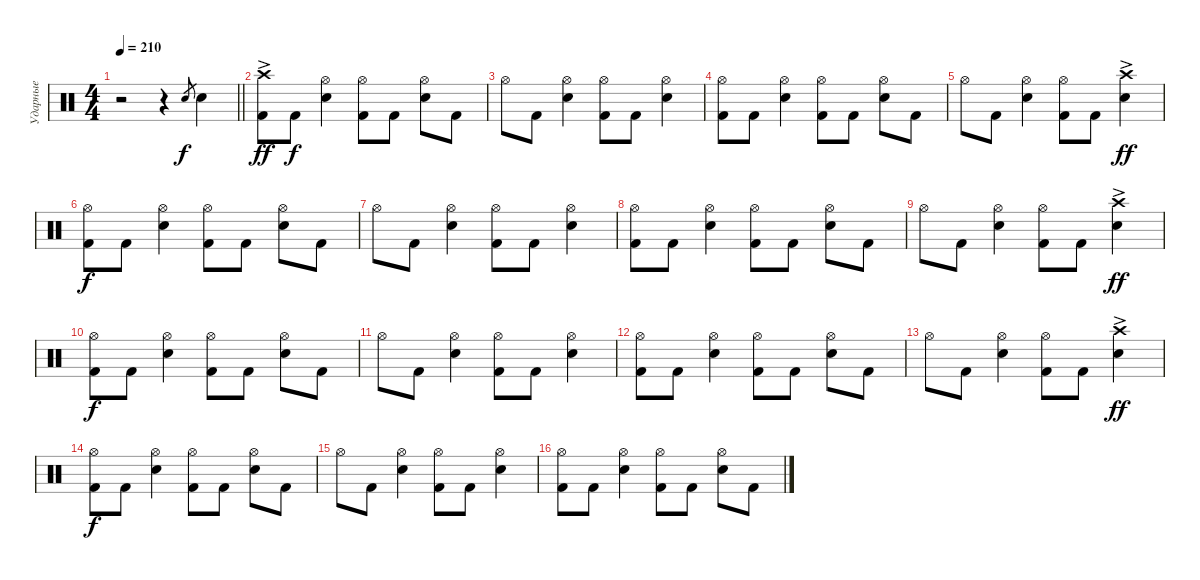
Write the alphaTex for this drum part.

\track ("Ударные" "Ударные") {instrument percussion}
\staff {score}
\articulation defaults
\ts (4 4)
\tempo 210
\clef neutral
\barLineRight lightlight
\ks c
r.2{dy f} r.4 "Snare (hit) 2".8{gr} "Snare (hit) 2".4 |
\section ("" "")
("Crash high (hit)"{ac} "Kick (hit) 2").8{dy ff} "Kick (hit) 2".8{dy f} ("Hi-Hat (open)" "Snare (hit) 2").4 ("Hi-Hat (open)" "Kick (hit) 2").8 "Kick (hit) 2".8 ("Hi-Hat (open)" "Snare (hit) 2").8 "Kick (hit) 2".8 |
"Hi-Hat (open)".8 "Kick (hit) 2".8 ("Hi-Hat (open)" "Snare (hit) 2").4 ("Hi-Hat (open)" "Kick (hit) 2").8 "Kick (hit) 2".8 ("Hi-Hat (open)" "Snare (hit) 2").4 |
("Hi-Hat (open)" "Kick (hit) 2").8 "Kick (hit) 2".8 ("Hi-Hat (open)" "Snare (hit) 2").4 ("Hi-Hat (open)" "Kick (hit) 2").8 "Kick (hit) 2".8 ("Hi-Hat (open)" "Snare (hit) 2").8 "Kick (hit) 2".8 |
"Hi-Hat (open)".8 "Kick (hit) 2".8 ("Hi-Hat (open)" "Snare (hit) 2").4 ("Hi-Hat (open)" "Kick (hit) 2").8 "Kick (hit) 2".8 ("Crash high (hit)"{ac} "Snare (hit) 2").4{dy ff} |
("Hi-Hat (open)" "Kick (hit) 2").8{dy f} "Kick (hit) 2".8 ("Hi-Hat (open)" "Snare (hit) 2").4 ("Hi-Hat (open)" "Kick (hit) 2").8 "Kick (hit) 2".8 ("Hi-Hat (open)" "Snare (hit) 2").8 "Kick (hit) 2".8 |
"Hi-Hat (open)".8 "Kick (hit) 2".8 ("Hi-Hat (open)" "Snare (hit) 2").4 ("Hi-Hat (open)" "Kick (hit) 2").8 "Kick (hit) 2".8 ("Hi-Hat (open)" "Snare (hit) 2").4 |
("Hi-Hat (open)" "Kick (hit) 2").8 "Kick (hit) 2".8 ("Hi-Hat (open)" "Snare (hit) 2").4 ("Hi-Hat (open)" "Kick (hit) 2").8 "Kick (hit) 2".8 ("Hi-Hat (open)" "Snare (hit) 2").8 "Kick (hit) 2".8 |
"Hi-Hat (open)".8 "Kick (hit) 2".8 ("Hi-Hat (open)" "Snare (hit) 2").4 ("Hi-Hat (open)" "Kick (hit) 2").8 "Kick (hit) 2".8 ("Crash high (hit)"{ac} "Snare (hit) 2").4{dy ff} |
("Hi-Hat (open)" "Kick (hit) 2").8{dy f} "Kick (hit) 2".8 ("Hi-Hat (open)" "Snare (hit) 2").4 ("Hi-Hat (open)" "Kick (hit) 2").8 "Kick (hit) 2".8 ("Hi-Hat (open)" "Snare (hit) 2").8 "Kick (hit) 2".8 |
"Hi-Hat (open)".8 "Kick (hit) 2".8 ("Hi-Hat (open)" "Snare (hit) 2").4 ("Hi-Hat (open)" "Kick (hit) 2").8 "Kick (hit) 2".8 ("Hi-Hat (open)" "Snare (hit) 2").4 |
("Hi-Hat (open)" "Kick (hit) 2").8 "Kick (hit) 2".8 ("Hi-Hat (open)" "Snare (hit) 2").4 ("Hi-Hat (open)" "Kick (hit) 2").8 "Kick (hit) 2".8 ("Hi-Hat (open)" "Snare (hit) 2").8 "Kick (hit) 2".8 |
"Hi-Hat (open)".8 "Kick (hit) 2".8 ("Hi-Hat (open)" "Snare (hit) 2").4 ("Hi-Hat (open)" "Kick (hit) 2").8 "Kick (hit) 2".8 ("Crash high (hit)"{ac} "Snare (hit) 2").4{dy ff} |
("Hi-Hat (open)" "Kick (hit) 2").8{dy f} "Kick (hit) 2".8 ("Hi-Hat (open)" "Snare (hit) 2").4 ("Hi-Hat (open)" "Kick (hit) 2").8 "Kick (hit) 2".8 ("Hi-Hat (open)" "Snare (hit) 2").8 "Kick (hit) 2".8 |
"Hi-Hat (open)".8 "Kick (hit) 2".8 ("Hi-Hat (open)" "Snare (hit) 2").4 ("Hi-Hat (open)" "Kick (hit) 2").8 "Kick (hit) 2".8 ("Hi-Hat (open)" "Snare (hit) 2").4 |
("Hi-Hat (open)" "Kick (hit) 2").8 "Kick (hit) 2".8 ("Hi-Hat (open)" "Snare (hit) 2").4 ("Hi-Hat (open)" "Kick (hit) 2").8 "Kick (hit) 2".8 ("Hi-Hat (open)" "Snare (hit) 2").8 "Kick (hit) 2".8
